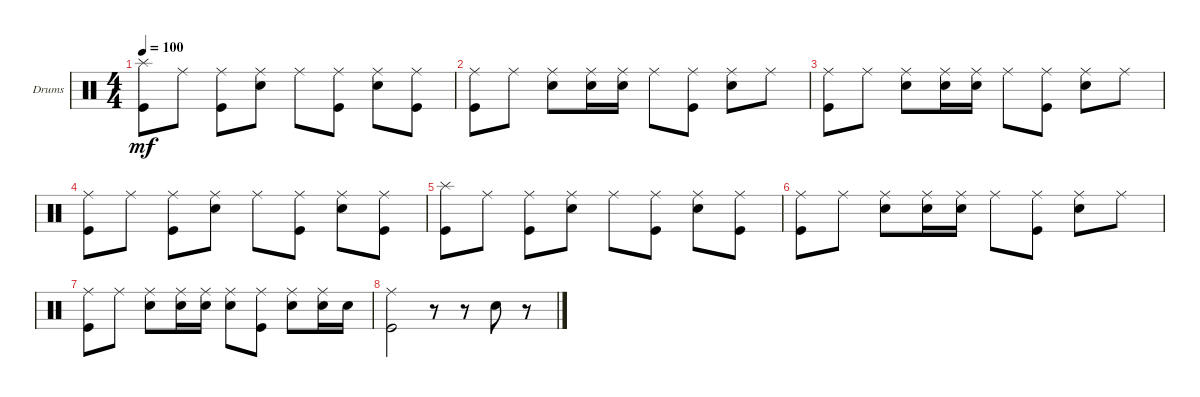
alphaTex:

\defaultSystemsLayout 4
\bracketExtendMode groupsimilarinstruments
\firstSystemTrackNameOrientation horizontal
\otherSystemsTrackNameOrientation horizontal
\track ("Drumkit" "Drums") {instrument percussion}
\staff {score}
\articulation defaults
\ts (4 4)
\tempo 100
\clef neutral
\ks c
("Kick (hit)" "Splash (hit)").8{dy mf} "Ride (middle)".8 ("Kick (hit)" "Ride (middle)").8 ("Snare (hit) 2" "Ride (middle)").8 "Ride (middle)".8 ("Kick (hit)" "Ride (middle)").8 ("Snare (hit) 2" "Ride (middle)").8 ("Kick (hit)" "Ride (middle)").8 |
("Kick (hit)" "Ride (middle)").8 "Ride (middle)".8 ("Snare (hit) 2" "Ride (middle)").8 ("Snare (hit) 2" "Ride (middle)").16 ("Snare (hit) 2" "Ride (middle)").16 "Ride (middle)".8 ("Kick (hit)" "Ride (middle)").8 ("Snare (hit) 2" "Ride (middle)").8 "Ride (middle)".8 |
("Kick (hit)" "Ride (middle)").8 "Ride (middle)".8 ("Snare (hit) 2" "Ride (middle)").8 ("Snare (hit) 2" "Ride (middle)").16 ("Snare (hit) 2" "Ride (middle)").16 "Ride (middle)".8 ("Kick (hit)" "Ride (middle)").8 ("Snare (hit) 2" "Ride (middle)").8 "Ride (middle)".8 |
("Kick (hit)" "Ride (middle)").8 "Ride (middle)".8 ("Kick (hit)" "Ride (middle)").8 ("Snare (hit) 2" "Ride (middle)").8 "Ride (middle)".8 ("Kick (hit)" "Ride (middle)").8 ("Snare (hit) 2" "Ride (middle)").8 ("Kick (hit)" "Ride (middle)").8 |
("Kick (hit)" "Splash (hit)").8 "Ride (middle)".8 ("Kick (hit)" "Ride (middle)").8 ("Snare (hit) 2" "Ride (middle)").8 "Ride (middle)".8 ("Kick (hit)" "Ride (middle)").8 ("Snare (hit) 2" "Ride (middle)").8 ("Kick (hit)" "Ride (middle)").8 |
("Kick (hit)" "Ride (middle)").8 "Ride (middle)".8 ("Snare (hit) 2" "Ride (middle)").8 ("Snare (hit) 2" "Ride (middle)").16 ("Snare (hit) 2" "Ride (middle)").16 "Ride (middle)".8 ("Kick (hit)" "Ride (middle)").8 ("Snare (hit) 2" "Ride (middle)").8 "Ride (middle)".8 |
("Kick (hit)" "Ride (middle)").8 "Ride (middle)".8 ("Snare (hit) 2" "Ride (middle)").8 ("Snare (hit) 2" "Ride (middle)").16 ("Snare (hit) 2" "Ride (middle)").16 ("Ride (middle)" "Snare (hit) 2").8 ("Kick (hit)" "Ride (middle)").8 ("Snare (hit) 2" "Ride (middle)").8 ("Ride (middle)" "Snare (hit) 2").16 "Snare (hit) 2".16 |
("Kick (hit)" "Ride (middle)").2 r.8 r.8 "Snare (hit) 2".8 r.8
